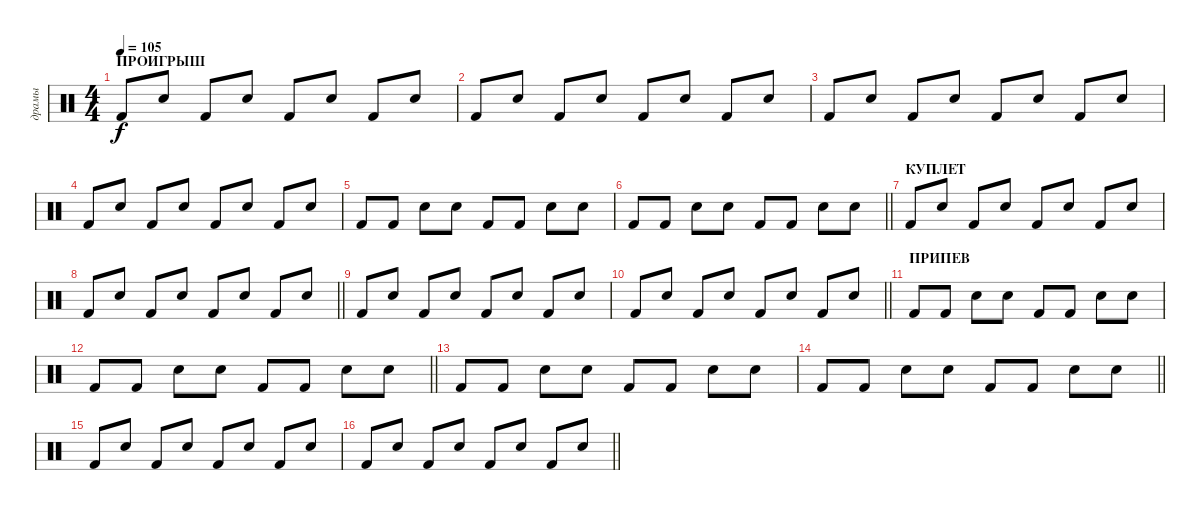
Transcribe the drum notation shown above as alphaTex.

\track ("драмы" "драмы") {instrument percussion}
\staff {score}
\articulation defaults
\ts (4 4)
\section ("" "ПРОИГРЫШ")
\tempo 105
\clef neutral
\ks c "Kick (hit) 2".8{dy f} "Electric Snare (hit)".8 "Kick (hit) 2".8 "Electric Snare (hit)".8 "Kick (hit) 2".8 "Electric Snare (hit)".8 "Kick (hit) 2".8 "Electric Snare (hit)".8
|
"Kick (hit) 2".8 "Electric Snare (hit)".8 "Kick (hit) 2".8 "Electric Snare (hit)".8 "Kick (hit) 2".8 "Electric Snare (hit)".8 "Kick (hit) 2".8 "Electric Snare (hit)".8 |
"Kick (hit) 2".8 "Electric Snare (hit)".8 "Kick (hit) 2".8 "Electric Snare (hit)".8 "Kick (hit) 2".8 "Electric Snare (hit)".8 "Kick (hit) 2".8 "Electric Snare (hit)".8 |
"Kick (hit) 2".8 "Electric Snare (hit)".8 "Kick (hit) 2".8 "Electric Snare (hit)".8 "Kick (hit) 2".8 "Electric Snare (hit)".8 "Kick (hit) 2".8 "Electric Snare (hit)".8 |
"Kick (hit) 2".8 "Kick (hit) 2".8 "Electric Snare (hit)".8 "Electric Snare (hit)".8 "Kick (hit) 2".8 "Kick (hit) 2".8 "Electric Snare (hit)".8 "Electric Snare (hit)".8 |
\barLineRight lightlight "Kick (hit) 2".8 "Kick (hit) 2".8 "Electric Snare (hit)".8 "Electric Snare (hit)".8 "Kick (hit) 2".8 "Kick (hit) 2".8 "Electric Snare (hit)".8 "Electric Snare (hit)".8
|
\section ("" "КУПЛЕТ")
"Kick (hit) 2".8 "Electric Snare (hit)".8 "Kick (hit) 2".8 "Electric Snare (hit)".8 "Kick (hit) 2".8 "Electric Snare (hit)".8 "Kick (hit) 2".8 "Electric Snare (hit)".8 |
\barLineRight lightlight "Kick (hit) 2".8 "Electric Snare (hit)".8 "Kick (hit) 2".8 "Electric Snare (hit)".8 "Kick (hit) 2".8 "Electric Snare (hit)".8 "Kick (hit) 2".8 "Electric Snare (hit)".8
|
"Kick (hit) 2".8 "Electric Snare (hit)".8 "Kick (hit) 2".8 "Electric Snare (hit)".8 "Kick (hit) 2".8 "Electric Snare (hit)".8 "Kick (hit) 2".8 "Electric Snare (hit)".8 |
\barLineRight lightlight "Kick (hit) 2".8 "Electric Snare (hit)".8 "Kick (hit) 2".8 "Electric Snare (hit)".8 "Kick (hit) 2".8 "Electric Snare (hit)".8 "Kick (hit) 2".8 "Electric Snare (hit)".8
|
\section ("" "ПРИПЕВ")
"Kick (hit) 2".8 "Kick (hit) 2".8 "Electric Snare (hit)".8 "Electric Snare (hit)".8 "Kick (hit) 2".8 "Kick (hit) 2".8 "Electric Snare (hit)".8 "Electric Snare (hit)".8 |
\barLineRight lightlight "Kick (hit) 2".8 "Kick (hit) 2".8 "Electric Snare (hit)".8 "Electric Snare (hit)".8 "Kick (hit) 2".8 "Kick (hit) 2".8 "Electric Snare (hit)".8 "Electric Snare (hit)".8
|
"Kick (hit) 2".8 "Kick (hit) 2".8 "Electric Snare (hit)".8 "Electric Snare (hit)".8 "Kick (hit) 2".8 "Kick (hit) 2".8 "Electric Snare (hit)".8 "Electric Snare (hit)".8 |
\barLineRight lightlight "Kick (hit) 2".8 "Kick (hit) 2".8 "Electric Snare (hit)".8 "Electric Snare (hit)".8 "Kick (hit) 2".8 "Kick (hit) 2".8 "Electric Snare (hit)".8 "Electric Snare (hit)".8
|
"Kick (hit) 2".8 "Electric Snare (hit)".8 "Kick (hit) 2".8 "Electric Snare (hit)".8 "Kick (hit) 2".8 "Electric Snare (hit)".8 "Kick (hit) 2".8 "Electric Snare (hit)".8 |
\barLineRight lightlight "Kick (hit) 2".8 "Electric Snare (hit)".8 "Kick (hit) 2".8 "Electric Snare (hit)".8 "Kick (hit) 2".8 "Electric Snare (hit)".8 "Kick (hit) 2".8 "Electric Snare (hit)".8
